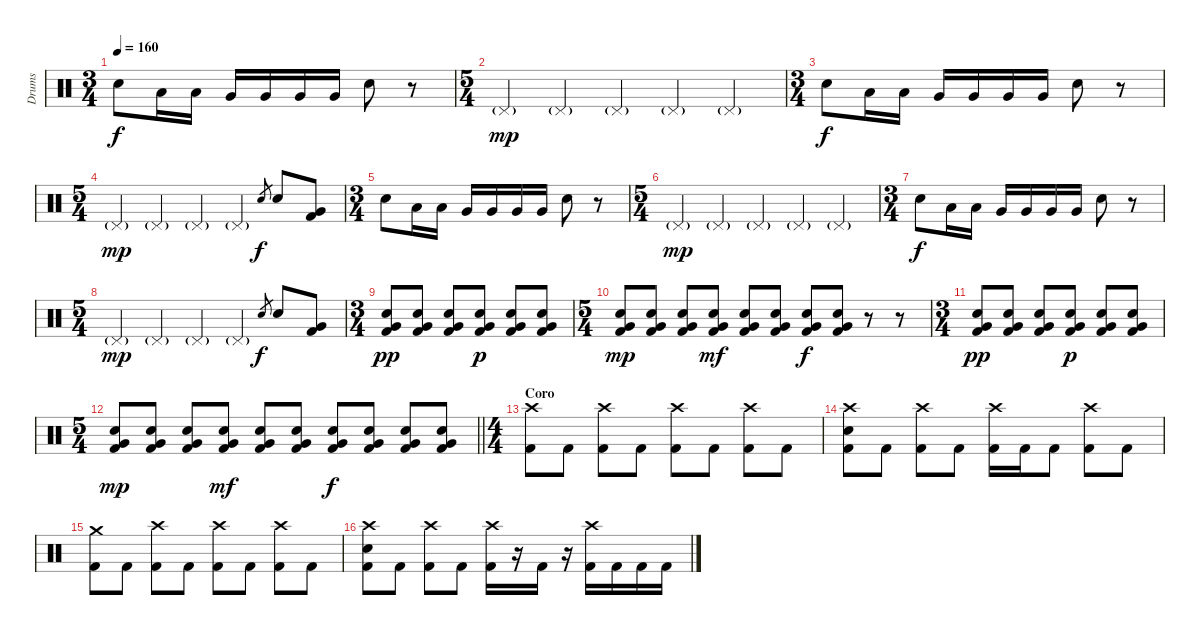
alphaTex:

\track ("Drums" "Drums") {instrument percussion}
\staff {score}
\articulation defaults
\ts (3 4)
\tempo 160
\clef neutral
\ks c "Electric Snare (hit)".8{dy f} "Low Tom (hit)".16 "Low Tom (hit)".16 "Very Low Tom (hit)".16 "Very Low Tom (hit)".16 "Very Low Tom (hit)".16 "Very Low Tom (hit)".16 "Electric Snare (hit)".8
r.8 |
\ts (5 4)
"Pedal Hi-Hat (hit)"{g}.4{dy mp} "Pedal Hi-Hat (hit)"{g}.4 "Pedal Hi-Hat (hit)"{g}.4 "Pedal Hi-Hat (hit)"{g}.4 "Pedal Hi-Hat (hit)"{g}.4 |
\ts (3 4)
"Electric Snare (hit)".8{dy f} "Low Tom (hit)".16 "Low Tom (hit)".16 "Very Low Tom (hit)".16 "Very Low Tom (hit)".16 "Very Low Tom (hit)".16 "Very Low Tom (hit)".16 "Electric Snare (hit)".8 r.8 |
\ts (5 4)
"Pedal Hi-Hat (hit)"{g}.4{dy mp} "Pedal Hi-Hat (hit)"{g}.4 "Pedal Hi-Hat (hit)"{g}.4 "Pedal Hi-Hat (hit)"{g}.4 "Electric Snare (hit)".8{gr dy f} "Electric Snare (hit)".8 ("Very Low Tom (hit)" "Kick (hit) 2").8 |
\ts (3 4)
"Electric Snare (hit)".8 "Low Tom (hit)".16 "Low Tom (hit)".16 "Very Low Tom (hit)".16 "Very Low Tom (hit)".16 "Very Low Tom (hit)".16 "Very Low Tom (hit)".16 "Electric Snare (hit)".8 r.8 |
\ts (5 4)
"Pedal Hi-Hat (hit)"{g}.4{dy mp} "Pedal Hi-Hat (hit)"{g}.4 "Pedal Hi-Hat (hit)"{g}.4 "Pedal Hi-Hat (hit)"{g}.4 "Pedal Hi-Hat (hit)"{g}.4 |
\ts (3 4)
"Electric Snare (hit)".8{dy f} "Low Tom (hit)".16 "Low Tom (hit)".16 "Very Low Tom (hit)".16 "Very Low Tom (hit)".16 "Very Low Tom (hit)".16 "Very Low Tom (hit)".16 "Electric Snare (hit)".8 r.8 |
\ts (5 4)
"Pedal Hi-Hat (hit)"{g}.4{dy mp} "Pedal Hi-Hat (hit)"{g}.4 "Pedal Hi-Hat (hit)"{g}.4 "Pedal Hi-Hat (hit)"{g}.4 "Electric Snare (hit)".8{gr dy f} "Electric Snare (hit)".8 ("Very Low Tom (hit)" "Kick (hit) 2").8 |
\ts (3 4)
("Electric Snare (hit)" "Very Low Tom (hit)" "Kick (hit) 2").8{dy pp} ("Electric Snare (hit)" "Very Low Tom (hit)" "Kick (hit) 2").8 ("Electric Snare (hit)" "Very Low Tom (hit)" "Kick (hit) 2").8 ("Electric Snare (hit)" "Very Low Tom (hit)" "Kick (hit) 2").8{dy p} ("Electric Snare (hit)" "Very Low Tom (hit)" "Kick (hit) 2").8 ("Electric Snare (hit)" "Very Low Tom (hit)" "Kick (hit) 2").8 |
\ts (5 4)
("Electric Snare (hit)" "Very Low Tom (hit)" "Kick (hit) 2").8{dy mp} ("Electric Snare (hit)" "Very Low Tom (hit)" "Kick (hit) 2").8 ("Electric Snare (hit)" "Very Low Tom (hit)" "Kick (hit) 2").8 ("Electric Snare (hit)" "Very Low Tom (hit)" "Kick (hit) 2").8{dy mf} ("Electric Snare (hit)" "Very Low Tom (hit)" "Kick (hit) 2").8 ("Electric Snare (hit)" "Very Low Tom (hit)" "Kick (hit) 2").8 ("Electric Snare (hit)" "Very Low Tom (hit)" "Kick (hit) 2").8{dy f} ("Electric Snare (hit)" "Very Low Tom (hit)" "Kick (hit) 2").8 r.8 r.8 |
\ts (3 4)
("Electric Snare (hit)" "Very Low Tom (hit)" "Kick (hit) 2").8{dy pp} ("Electric Snare (hit)" "Very Low Tom (hit)" "Kick (hit) 2").8 ("Electric Snare (hit)" "Very Low Tom (hit)" "Kick (hit) 2").8 ("Electric Snare (hit)" "Very Low Tom (hit)" "Kick (hit) 2").8{dy p} ("Electric Snare (hit)" "Very Low Tom (hit)" "Kick (hit) 2").8 ("Electric Snare (hit)" "Very Low Tom (hit)" "Kick (hit) 2").8 |
\ts (5 4)
\barLineRight lightlight
("Electric Snare (hit)" "Very Low Tom (hit)" "Kick (hit) 2").8{dy mp} ("Electric Snare (hit)" "Very Low Tom (hit)" "Kick (hit) 2").8 ("Electric Snare (hit)" "Very Low Tom (hit)" "Kick (hit) 2").8 ("Electric Snare (hit)" "Very Low Tom (hit)" "Kick (hit) 2").8{dy mf} ("Electric Snare (hit)" "Very Low Tom (hit)" "Kick (hit) 2").8 ("Electric Snare (hit)" "Very Low Tom (hit)" "Kick (hit) 2").8 ("Electric Snare (hit)" "Very Low Tom (hit)" "Kick (hit) 2").8{dy f} ("Electric Snare (hit)" "Very Low Tom (hit)" "Kick (hit) 2").8 ("Electric Snare (hit)" "Very Low Tom (hit)" "Kick (hit) 2").8 ("Electric Snare (hit)" "Very Low Tom (hit)" "Kick (hit) 2").8 |
\ts (4 4)
\section ("" "Coro")
("Crash high (hit)" "Kick (hit) 2").8 "Kick (hit) 2".8 ("Crash high (hit)" "Kick (hit) 2").8 "Kick (hit) 2".8 ("Crash high (hit)" "Kick (hit) 2").8 "Kick (hit) 2".8 ("Crash high (hit)" "Kick (hit) 2").8 "Kick (hit) 2".8 |
("Crash high (hit)" "Electric Snare (hit)" "Kick (hit) 2").8 "Kick (hit) 2".8 ("Crash high (hit)" "Kick (hit) 2").8 "Kick (hit) 2".8 ("Crash high (hit)" "Kick (hit) 2").16 "Kick (hit) 2".16 "Kick (hit) 2".8 ("Crash high (hit)" "Kick (hit) 2").8 "Kick (hit) 2".8 |
("Crash medium (hit)" "Kick (hit) 2").8 "Kick (hit) 2".8 ("Crash high (hit)" "Kick (hit) 2").8 "Kick (hit) 2".8 ("Crash high (hit)" "Kick (hit) 2").8 "Kick (hit) 2".8 ("Crash high (hit)" "Kick (hit) 2").8 "Kick (hit) 2".8 |
("Crash high (hit)" "Electric Snare (hit)" "Kick (hit) 2").8 "Kick (hit) 2".8 ("Crash high (hit)" "Kick (hit) 2").8 "Kick (hit) 2".8 ("Crash high (hit)" "Kick (hit) 2").16 r.16 "Kick (hit) 2".16 r.16 ("Crash high (hit)" "Kick (hit) 2").16 "Kick (hit) 2".16 "Kick (hit) 2".16 "Kick (hit) 2".16
